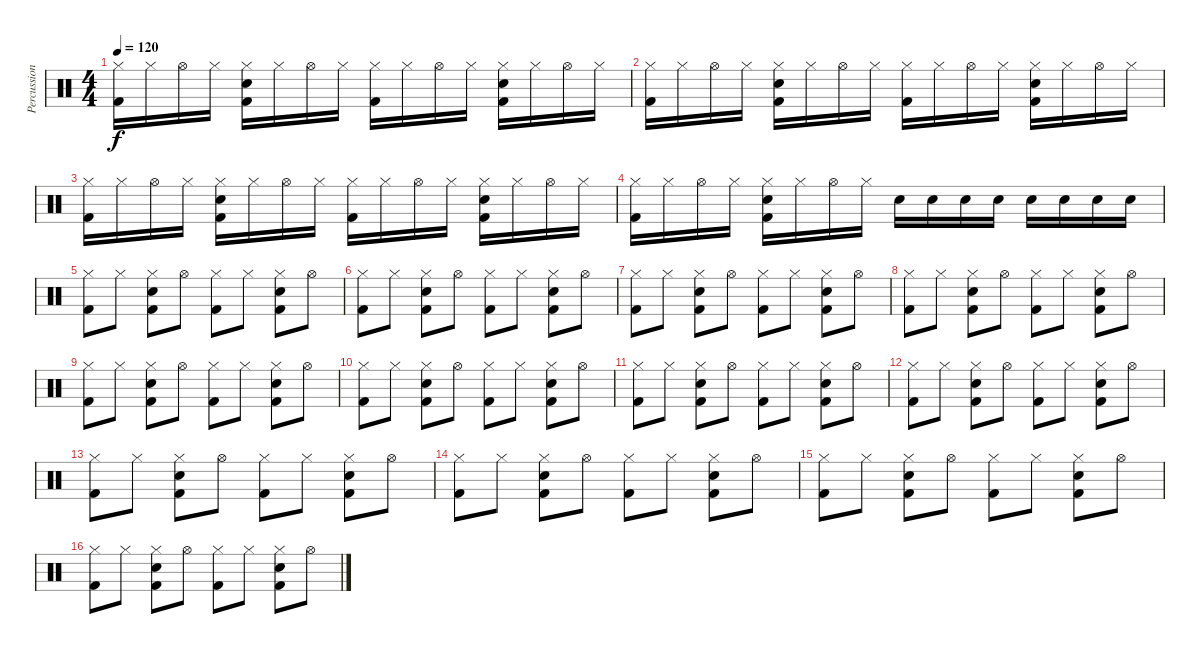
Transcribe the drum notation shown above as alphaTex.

\track ("Percussion" "Percussion") {instrument percussion}
\staff {score}
\articulation defaults
\ts (4 4)
\tempo 120
\clef neutral
\ks c
("Hi-Hat (closed)" "Kick (hit) 2").16{dy f} "Hi-Hat (closed)".16 "Hi-Hat (open)".16 "Hi-Hat (closed)".16 ("Hi-Hat (closed)" "Snare (hit) 2" "Kick (hit) 2").16 "Hi-Hat (closed)".16 "Hi-Hat (open)".16 "Hi-Hat (closed)".16 ("Hi-Hat (closed)" "Kick (hit) 2").16 "Hi-Hat (closed)".16 "Hi-Hat (open)".16 "Hi-Hat (closed)".16 ("Hi-Hat (closed)" "Snare (hit) 2" "Kick (hit) 2").16 "Hi-Hat (closed)".16 "Hi-Hat (open)".16 "Hi-Hat (closed)".16 |
("Hi-Hat (closed)" "Kick (hit) 2").16 "Hi-Hat (closed)".16 "Hi-Hat (open)".16 "Hi-Hat (closed)".16 ("Hi-Hat (closed)" "Snare (hit) 2" "Kick (hit) 2").16 "Hi-Hat (closed)".16 "Hi-Hat (open)".16 "Hi-Hat (closed)".16 ("Hi-Hat (closed)" "Kick (hit) 2").16 "Hi-Hat (closed)".16 "Hi-Hat (open)".16 "Hi-Hat (closed)".16 ("Hi-Hat (closed)" "Snare (hit) 2" "Kick (hit) 2").16 "Hi-Hat (closed)".16 "Hi-Hat (open)".16 "Hi-Hat (closed)".16 |
("Hi-Hat (closed)" "Kick (hit) 2").16 "Hi-Hat (closed)".16 "Hi-Hat (open)".16 "Hi-Hat (closed)".16 ("Hi-Hat (closed)" "Snare (hit) 2" "Kick (hit) 2").16 "Hi-Hat (closed)".16 "Hi-Hat (open)".16 "Hi-Hat (closed)".16 ("Hi-Hat (closed)" "Kick (hit) 2").16 "Hi-Hat (closed)".16 "Hi-Hat (open)".16 "Hi-Hat (closed)".16 ("Hi-Hat (closed)" "Snare (hit) 2" "Kick (hit) 2").16 "Hi-Hat (closed)".16 "Hi-Hat (open)".16 "Hi-Hat (closed)".16 |
("Hi-Hat (closed)" "Kick (hit) 2").16 "Hi-Hat (closed)".16 "Hi-Hat (open)".16 "Hi-Hat (closed)".16 ("Hi-Hat (closed)" "Snare (hit) 2" "Kick (hit) 2").16 "Hi-Hat (closed)".16 "Hi-Hat (open)".16 "Hi-Hat (closed)".16 "Snare (hit) 2".16 "Snare (hit) 2".16 "Snare (hit) 2".16 "Snare (hit) 2".16 "Snare (hit) 2".16 "Snare (hit) 2".16 "Snare (hit) 2".16 "Snare (hit) 2".16 |
("Hi-Hat (closed)" "Kick (hit) 2").8 "Hi-Hat (closed)".8 ("Hi-Hat (closed)" "Snare (hit) 2" "Kick (hit) 2").8 "Hi-Hat (open)".8 ("Hi-Hat (closed)" "Kick (hit) 2").8 "Hi-Hat (closed)".8 ("Hi-Hat (closed)" "Snare (hit) 2" "Kick (hit) 2").8 "Hi-Hat (open)".8 |
("Hi-Hat (closed)" "Kick (hit) 2").8 "Hi-Hat (closed)".8 ("Hi-Hat (closed)" "Snare (hit) 2" "Kick (hit) 2").8 "Hi-Hat (open)".8 ("Hi-Hat (closed)" "Kick (hit) 2").8 "Hi-Hat (closed)".8 ("Hi-Hat (closed)" "Snare (hit) 2" "Kick (hit) 2").8 "Hi-Hat (open)".8 |
("Hi-Hat (closed)" "Kick (hit) 2").8 "Hi-Hat (closed)".8 ("Hi-Hat (closed)" "Snare (hit) 2" "Kick (hit) 2").8 "Hi-Hat (open)".8 ("Hi-Hat (closed)" "Kick (hit) 2").8 "Hi-Hat (closed)".8 ("Hi-Hat (closed)" "Snare (hit) 2" "Kick (hit) 2").8 "Hi-Hat (open)".8 |
("Hi-Hat (closed)" "Kick (hit) 2").8 "Hi-Hat (closed)".8 ("Hi-Hat (closed)" "Snare (hit) 2" "Kick (hit) 2").8 "Hi-Hat (open)".8 ("Hi-Hat (closed)" "Kick (hit) 2").8 "Hi-Hat (closed)".8 ("Hi-Hat (closed)" "Snare (hit) 2" "Kick (hit) 2").8 "Hi-Hat (open)".8 |
("Hi-Hat (closed)" "Kick (hit) 2").8 "Hi-Hat (closed)".8 ("Hi-Hat (closed)" "Snare (hit) 2" "Kick (hit) 2").8 "Hi-Hat (open)".8 ("Hi-Hat (closed)" "Kick (hit) 2").8 "Hi-Hat (closed)".8 ("Hi-Hat (closed)" "Snare (hit) 2" "Kick (hit) 2").8 "Hi-Hat (open)".8 |
("Hi-Hat (closed)" "Kick (hit) 2").8 "Hi-Hat (closed)".8 ("Hi-Hat (closed)" "Snare (hit) 2" "Kick (hit) 2").8 "Hi-Hat (open)".8 ("Hi-Hat (closed)" "Kick (hit) 2").8 "Hi-Hat (closed)".8 ("Hi-Hat (closed)" "Snare (hit) 2" "Kick (hit) 2").8 "Hi-Hat (open)".8 |
("Hi-Hat (closed)" "Kick (hit) 2").8 "Hi-Hat (closed)".8 ("Hi-Hat (closed)" "Snare (hit) 2" "Kick (hit) 2").8 "Hi-Hat (open)".8 ("Hi-Hat (closed)" "Kick (hit) 2").8 "Hi-Hat (closed)".8 ("Hi-Hat (closed)" "Snare (hit) 2" "Kick (hit) 2").8 "Hi-Hat (open)".8 |
("Hi-Hat (closed)" "Kick (hit) 2").8 "Hi-Hat (closed)".8 ("Hi-Hat (closed)" "Snare (hit) 2" "Kick (hit) 2").8 "Hi-Hat (open)".8 ("Hi-Hat (closed)" "Kick (hit) 2").8 "Hi-Hat (closed)".8 ("Hi-Hat (closed)" "Snare (hit) 2" "Kick (hit) 2").8 "Hi-Hat (open)".8 |
("Hi-Hat (closed)" "Kick (hit) 2").8 "Hi-Hat (closed)".8 ("Hi-Hat (closed)" "Snare (hit) 2" "Kick (hit) 2").8 "Hi-Hat (open)".8 ("Hi-Hat (closed)" "Kick (hit) 2").8 "Hi-Hat (closed)".8 ("Hi-Hat (closed)" "Snare (hit) 2" "Kick (hit) 2").8 "Hi-Hat (open)".8 |
("Hi-Hat (closed)" "Kick (hit) 2").8 "Hi-Hat (closed)".8 ("Hi-Hat (closed)" "Snare (hit) 2" "Kick (hit) 2").8 "Hi-Hat (open)".8 ("Hi-Hat (closed)" "Kick (hit) 2").8 "Hi-Hat (closed)".8 ("Hi-Hat (closed)" "Snare (hit) 2" "Kick (hit) 2").8 "Hi-Hat (open)".8 |
("Hi-Hat (closed)" "Kick (hit) 2").8 "Hi-Hat (closed)".8 ("Hi-Hat (closed)" "Snare (hit) 2" "Kick (hit) 2").8 "Hi-Hat (open)".8 ("Hi-Hat (closed)" "Kick (hit) 2").8 "Hi-Hat (closed)".8 ("Hi-Hat (closed)" "Snare (hit) 2" "Kick (hit) 2").8 "Hi-Hat (open)".8 |
("Hi-Hat (closed)" "Kick (hit) 2").8 "Hi-Hat (closed)".8 ("Hi-Hat (closed)" "Snare (hit) 2" "Kick (hit) 2").8 "Hi-Hat (open)".8 ("Hi-Hat (closed)" "Kick (hit) 2").8 "Hi-Hat (closed)".8 ("Hi-Hat (closed)" "Snare (hit) 2" "Kick (hit) 2").8 "Hi-Hat (open)".8
